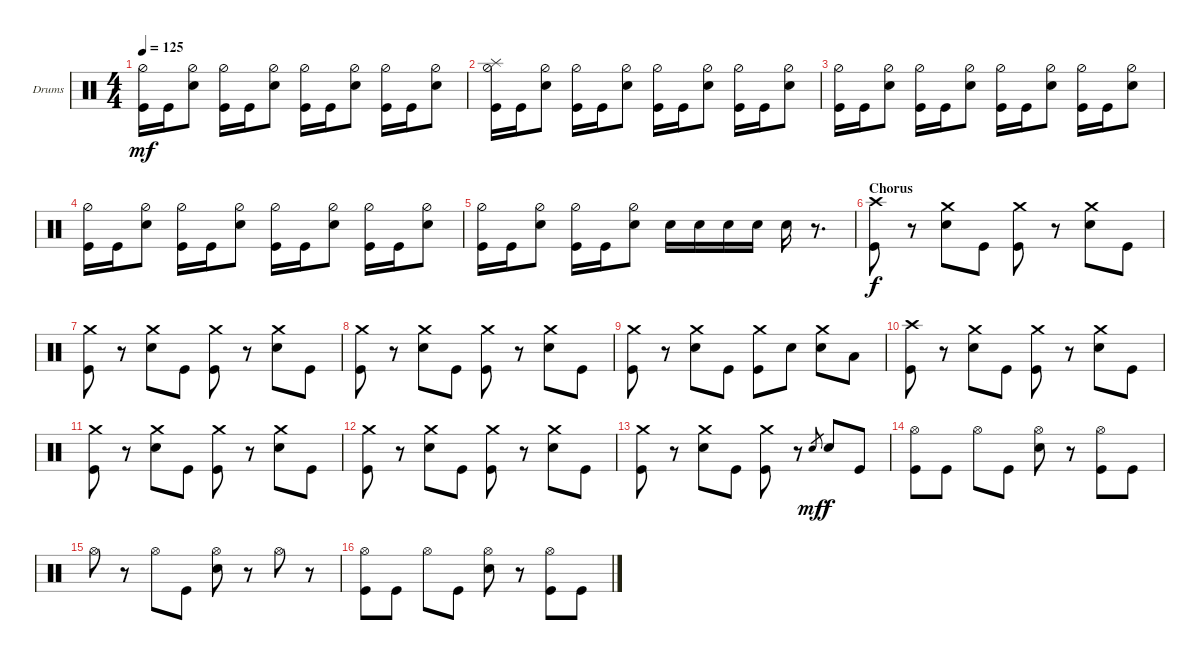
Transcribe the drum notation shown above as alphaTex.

\defaultSystemsLayout 4
\bracketExtendMode groupsimilarinstruments
\firstSystemTrackNameOrientation horizontal
\otherSystemsTrackNameOrientation horizontal
\track ("Drumkit" "Drums") {instrument percussion}
\staff {score}
\articulation defaults
\ts (4 4)
\tempo 125
\clef neutral
\ks c
("Hi-Hat (half)" "Kick (hit)").16{dy mf} "Kick (hit)".16 ("Hi-Hat (half)" "Snare (hit) 2").8 ("Hi-Hat (half)" "Kick (hit)").16 "Kick (hit)".16 ("Hi-Hat (half)" "Snare (hit) 2").8 ("Hi-Hat (half)" "Kick (hit)").16 "Kick (hit)".16 ("Hi-Hat (half)" "Snare (hit) 2").8 ("Hi-Hat (half)" "Kick (hit)").16 "Kick (hit)".16 ("Hi-Hat (half)" "Snare (hit) 2").8 |
("Hi-Hat (half)" "Kick (hit)" "Splash (hit)").16 "Kick (hit)".16 ("Hi-Hat (half)" "Snare (hit) 2").8 ("Hi-Hat (half)" "Kick (hit)").16 "Kick (hit)".16 ("Hi-Hat (half)" "Snare (hit) 2").8 ("Hi-Hat (half)" "Kick (hit)").16 "Kick (hit)".16 ("Hi-Hat (half)" "Snare (hit) 2").8 ("Hi-Hat (half)" "Kick (hit)").16 "Kick (hit)".16 ("Hi-Hat (half)" "Snare (hit) 2").8 |
("Hi-Hat (half)" "Kick (hit)").16 "Kick (hit)".16 ("Hi-Hat (half)" "Snare (hit) 2").8 ("Hi-Hat (half)" "Kick (hit)").16 "Kick (hit)".16 ("Hi-Hat (half)" "Snare (hit) 2").8 ("Hi-Hat (half)" "Kick (hit)").16 "Kick (hit)".16 ("Hi-Hat (half)" "Snare (hit) 2").8 ("Hi-Hat (half)" "Kick (hit)").16 "Kick (hit)".16 ("Hi-Hat (half)" "Snare (hit) 2").8 |
("Hi-Hat (half)" "Kick (hit)").16 "Kick (hit)".16 ("Hi-Hat (half)" "Snare (hit) 2").8 ("Hi-Hat (half)" "Kick (hit)").16 "Kick (hit)".16 ("Hi-Hat (half)" "Snare (hit) 2").8 ("Hi-Hat (half)" "Kick (hit)").16 "Kick (hit)".16 ("Hi-Hat (half)" "Snare (hit) 2").8 ("Hi-Hat (half)" "Kick (hit)").16 "Kick (hit)".16 ("Hi-Hat (half)" "Snare (hit) 2").8 |
("Hi-Hat (half)" "Kick (hit)").16 "Kick (hit)".16 ("Hi-Hat (half)" "Snare (hit) 2").8 ("Hi-Hat (half)" "Kick (hit)").16 "Kick (hit)".16 ("Hi-Hat (half)" "Snare (hit) 2").8 "Snare (hit) 2".16 "Snare (hit) 2".16 "Snare (hit) 2".16 "Snare (hit) 2".16 "Snare (hit) 2".16 r.8{d} |
\section ("" "Chorus")
("Kick (hit)" "Crash high (hit)").8{dy f} r.8 ("Snare (hit) 2" "Crash medium (hit)").8 "Kick (hit)".8 ("Kick (hit)" "Crash medium (hit)").8 r.8 ("Snare (hit) 2" "Crash medium (hit)").8 "Kick (hit)".8 |
("Kick (hit)" "Crash medium (hit)").8 r.8 ("Snare (hit) 2" "Crash medium (hit)").8 "Kick (hit)".8 ("Kick (hit)" "Crash medium (hit)").8 r.8 ("Snare (hit) 2" "Crash medium (hit)").8 "Kick (hit)".8 |
("Kick (hit)" "Crash medium (hit)").8 r.8 ("Snare (hit) 2" "Crash medium (hit)").8 "Kick (hit)".8 ("Kick (hit)" "Crash medium (hit)").8 r.8 ("Snare (hit) 2" "Crash medium (hit)").8 "Kick (hit)".8 |
("Kick (hit)" "Crash medium (hit)").8 r.8 ("Snare (hit) 2" "Crash medium (hit)").8 "Kick (hit)".8 ("Kick (hit)" "Crash medium (hit)").8 "Snare (hit) 2".8 ("Snare (hit) 2" "Crash medium (hit)").8 "Low Tom (hit)".8 |
("Kick (hit)" "Crash high (hit)").8 r.8 ("Snare (hit) 2" "Crash medium (hit)").8 "Kick (hit)".8 ("Kick (hit)" "Crash medium (hit)").8 r.8 ("Snare (hit) 2" "Crash medium (hit)").8 "Kick (hit)".8 |
("Kick (hit)" "Crash medium (hit)").8 r.8 ("Snare (hit) 2" "Crash medium (hit)").8 "Kick (hit)".8 ("Kick (hit)" "Crash medium (hit)").8 r.8 ("Snare (hit) 2" "Crash medium (hit)").8 "Kick (hit)".8 |
("Kick (hit)" "Crash medium (hit)").8 r.8 ("Snare (hit) 2" "Crash medium (hit)").8 "Kick (hit)".8 ("Kick (hit)" "Crash medium (hit)").8 r.8 ("Snare (hit) 2" "Crash medium (hit)").8 "Kick (hit)".8 |
("Kick (hit)" "Crash medium (hit)").8 r.8 ("Snare (hit) 2" "Crash medium (hit)").8 "Kick (hit)".8 ("Kick (hit)" "Crash medium (hit)").8 r.8 "Snare (hit) 2".8{gr dy mf} "Snare (hit) 2".8{dy f} "Kick (hit)".8 |
("Kick (hit)" "Hi-Hat (open)").8 "Kick (hit)".8 "Hi-Hat (open)".8 "Kick (hit)".8 ("Hi-Hat (open)" "Snare (hit) 2").8 r.8 ("Hi-Hat (open)" "Kick (hit)").8 "Kick (hit)".8 |
"Hi-Hat (open)".8 r.8 "Hi-Hat (open)".8 "Kick (hit)".8 ("Hi-Hat (open)" "Snare (hit) 2").8 r.8 "Hi-Hat (open)".8 r.8 |
("Hi-Hat (open)" "Kick (hit)").8 "Kick (hit)".8 "Hi-Hat (open)".8 "Kick (hit)".8 ("Hi-Hat (open)" "Snare (hit) 2").8 r.8 ("Hi-Hat (open)" "Kick (hit)").8 "Kick (hit)".8
